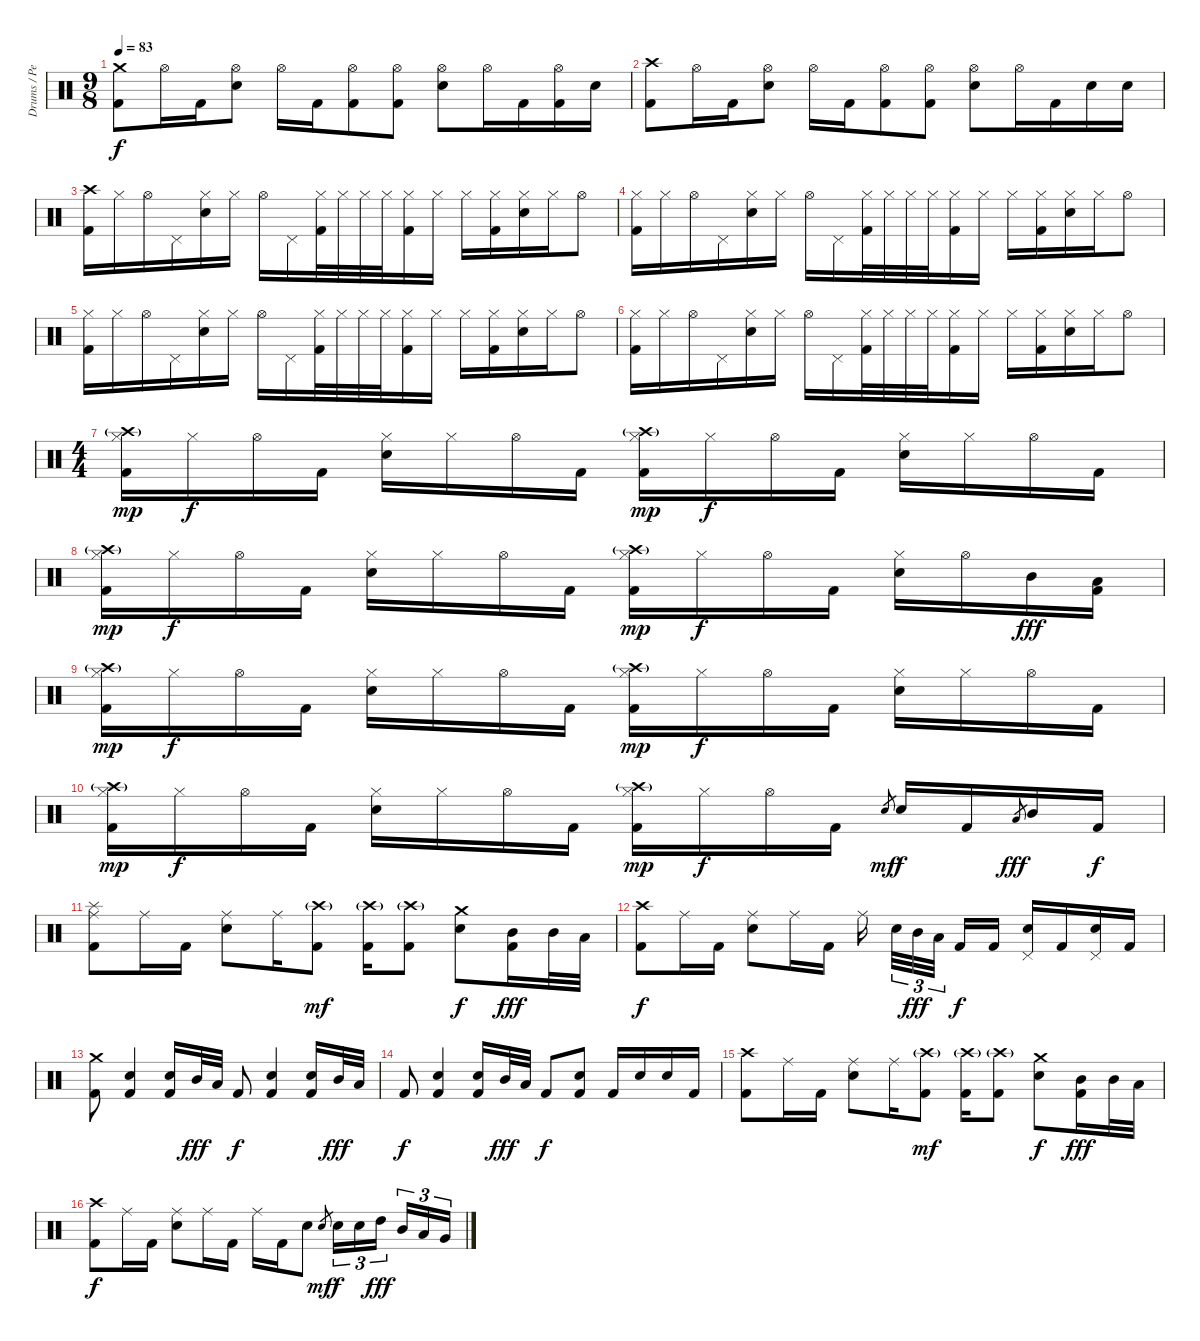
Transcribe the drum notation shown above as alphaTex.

\track ("Drums / Percussion" "Drums / Pe") {instrument percussion}
\staff {score}
\articulation defaults
\ts (9 8)
\tempo 83
\clef neutral
\ks c
("Crash medium (hit)" "Kick (hit) 2").8{dy f} "Hi-Hat (open)".16 "Kick (hit) 2".16 ("Hi-Hat (open)" "Snare (hit) 2").8 "Hi-Hat (open)".16 "Kick (hit) 2".16 ("Hi-Hat (open)" "Kick (hit) 2").8 ("Hi-Hat (open)" "Kick (hit) 2").8 ("Hi-Hat (open)" "Snare (hit) 2").8 "Hi-Hat (open)".16 "Kick (hit) 2".16 ("Hi-Hat (open)" "Kick (hit) 2").16 "Snare (hit) 2".16 |
("Crash high (hit)" "Kick (hit) 2").8 "Hi-Hat (open)".16 "Kick (hit) 2".16 ("Hi-Hat (open)" "Snare (hit) 2").8 "Hi-Hat (open)".16 "Kick (hit) 2".16 ("Hi-Hat (open)" "Kick (hit) 2").8 ("Hi-Hat (open)" "Kick (hit) 2").8 ("Hi-Hat (open)" "Snare (hit) 2").8 "Hi-Hat (open)".16 "Kick (hit) 2".16 "Snare (hit) 2".16 "Snare (hit) 2".16 |
\section ("" "")
("Crash high (hit)" "Kick (hit) 2").16 "Hi-Hat (closed)".16 "Hi-Hat (open)".16 "Pedal Hi-Hat (hit)".16 ("Hi-Hat (closed)" "Snare (hit) 2").16 "Hi-Hat (closed)".16 "Hi-Hat (open)".16 "Pedal Hi-Hat (hit)".16 ("Hi-Hat (closed)" "Kick (hit) 2").32 "Hi-Hat (closed)".32 "Hi-Hat (closed)".32 "Hi-Hat (closed)".32 ("Hi-Hat (closed)" "Kick (hit) 2").16 "Hi-Hat (closed)".16 "Hi-Hat (closed)".16 ("Hi-Hat (closed)" "Kick (hit) 2").16 ("Hi-Hat (closed)" "Snare (hit) 2").16 "Hi-Hat (closed)".16 "Hi-Hat (open)".8 |
("Hi-Hat (closed)" "Kick (hit) 2").16 "Hi-Hat (closed)".16 "Hi-Hat (open)".16 "Pedal Hi-Hat (hit)".16 ("Hi-Hat (closed)" "Snare (hit) 2").16 "Hi-Hat (closed)".16 "Hi-Hat (open)".16 "Pedal Hi-Hat (hit)".16 ("Hi-Hat (closed)" "Kick (hit) 2").32 "Hi-Hat (closed)".32 "Hi-Hat (closed)".32 "Hi-Hat (closed)".32 ("Hi-Hat (closed)" "Kick (hit) 2").16 "Hi-Hat (closed)".16 "Hi-Hat (closed)".16 ("Hi-Hat (closed)" "Kick (hit) 2").16 ("Hi-Hat (closed)" "Snare (hit) 2").16 "Hi-Hat (closed)".16 "Hi-Hat (open)".8 |
("Hi-Hat (closed)" "Kick (hit) 2").16 "Hi-Hat (closed)".16 "Hi-Hat (open)".16 "Pedal Hi-Hat (hit)".16 ("Hi-Hat (closed)" "Snare (hit) 2").16 "Hi-Hat (closed)".16 "Hi-Hat (open)".16 "Pedal Hi-Hat (hit)".16 ("Hi-Hat (closed)" "Kick (hit) 2").32 "Hi-Hat (closed)".32 "Hi-Hat (closed)".32 "Hi-Hat (closed)".32 ("Hi-Hat (closed)" "Kick (hit) 2").16 "Hi-Hat (closed)".16 "Hi-Hat (closed)".16 ("Hi-Hat (closed)" "Kick (hit) 2").16 ("Hi-Hat (closed)" "Snare (hit) 2").16 "Hi-Hat (closed)".16 "Hi-Hat (open)".8 |
("Hi-Hat (closed)" "Kick (hit) 2").16 "Hi-Hat (closed)".16 "Hi-Hat (open)".16 "Pedal Hi-Hat (hit)".16 ("Hi-Hat (closed)" "Snare (hit) 2").16 "Hi-Hat (closed)".16 "Hi-Hat (open)".16 "Pedal Hi-Hat (hit)".16 ("Hi-Hat (closed)" "Kick (hit) 2").32 "Hi-Hat (closed)".32 "Hi-Hat (closed)".32 "Hi-Hat (closed)".32 ("Hi-Hat (closed)" "Kick (hit) 2").16 "Hi-Hat (closed)".16 "Hi-Hat (closed)".16 ("Hi-Hat (closed)" "Kick (hit) 2").16 ("Hi-Hat (closed)" "Snare (hit) 2").16 "Hi-Hat (closed)".16 "Hi-Hat (open)".8 |
\ts (4 4)
\section ("" "")
("Crash high (hit)"{g} "Hi-Hat (closed)" "Kick (hit) 2").16{dy mp} "Hi-Hat (closed)".16{dy f} "Hi-Hat (open)".16 "Kick (hit) 2".16 ("Hi-Hat (closed)" "Snare (hit) 2").16 "Hi-Hat (closed)".16 "Hi-Hat (open)".16 "Kick (hit) 2".16 ("Crash high (hit)"{g} "Hi-Hat (closed)" "Kick (hit) 2").16{dy mp} "Hi-Hat (closed)".16{dy f} "Hi-Hat (open)".16 "Kick (hit) 2".16 ("Hi-Hat (closed)" "Snare (hit) 2").16 "Hi-Hat (closed)".16 "Hi-Hat (open)".16 "Kick (hit) 2".16 |
("Crash high (hit)"{g} "Hi-Hat (closed)" "Kick (hit) 2").16{dy mp} "Hi-Hat (closed)".16{dy f} "Hi-Hat (open)".16 "Kick (hit) 2".16 ("Hi-Hat (closed)" "Snare (hit) 2").16 "Hi-Hat (closed)".16 "Hi-Hat (open)".16 "Kick (hit) 2".16 ("Crash high (hit)"{g} "Hi-Hat (closed)" "Kick (hit) 2").16{dy mp} "Hi-Hat (closed)".16{dy f} "Hi-Hat (open)".16 "Kick (hit) 2".16 ("Hi-Hat (closed)" "Snare (hit) 2").16 "Hi-Hat (open)".16 "Mid Tom (hit)".16{dy fff} ("Low Tom (hit)" "Kick (hit) 2").16 |
("Crash high (hit)"{g} "Hi-Hat (closed)" "Kick (hit) 2").16{dy mp} "Hi-Hat (closed)".16{dy f} "Hi-Hat (open)".16 "Kick (hit) 2".16 ("Hi-Hat (closed)" "Snare (hit) 2").16 "Hi-Hat (closed)".16 "Hi-Hat (open)".16 "Kick (hit) 2".16 ("Crash high (hit)"{g} "Hi-Hat (closed)" "Kick (hit) 2").16{dy mp} "Hi-Hat (closed)".16{dy f} "Hi-Hat (open)".16 "Kick (hit) 2".16 ("Hi-Hat (closed)" "Snare (hit) 2").16 "Hi-Hat (closed)".16 "Hi-Hat (open)".16 "Kick (hit) 2".16 |
("Crash high (hit)"{g} "Hi-Hat (closed)" "Kick (hit) 2").16{dy mp} "Hi-Hat (closed)".16{dy f} "Hi-Hat (open)".16 "Kick (hit) 2".16 ("Hi-Hat (closed)" "Snare (hit) 2").16 "Hi-Hat (closed)".16 "Hi-Hat (open)".16 "Kick (hit) 2".16 ("Crash high (hit)"{g} "Hi-Hat (closed)" "Kick (hit) 2").16{dy mp} "Hi-Hat (closed)".16{dy f} "Hi-Hat (open)".16 "Kick (hit) 2".16 "Snare (hit) 2".8{gr dy mf} "Snare (hit) 2".16{dy f} "Kick (hit) 2".16 "Low Tom (hit)".8{gr dy fff} "Mid Tom (hit)".16 "Kick (hit) 2".16{dy f} |
("Splash (hit)" "Ride (middle)" "Kick (hit) 2").8 "Ride (middle)".16 "Kick (hit) 2".16 ("Ride (middle)" "Snare (hit) 2").8 "Ride (middle)".16 ("Crash high (hit)"{g} "Kick (hit) 2").8{dy mf} ("Crash high (hit)"{g} "Kick (hit) 2").16 ("Crash high (hit)"{g} "Kick (hit) 2").8 ("Crash medium (hit)" "Snare (hit) 2").8{dy f} ("Mid Tom (hit)" "Kick (hit) 2").16{dy fff} "Mid Tom (hit)".32 "Low Tom (hit)".32 |
("Crash high (hit)" "Kick (hit) 2").8{dy f} "Ride (middle)".16 "Kick (hit) 2".16 ("Ride (middle)" "Snare (hit) 2").8 "Ride (middle)".16 "Kick (hit) 2".16 "Ride (middle)".16 "Snare (hit) 2".32{tu (3 2)} "Mid Tom (hit)".32{tu (3 2) dy fff} "Low Tom (hit)".32{tu (3 2)} "Kick (hit) 2".16{dy f} "Kick (hit) 2".16 ("Pedal Hi-Hat (hit)" "Snare (hit) 2").16 "Kick (hit) 2".16 ("Pedal Hi-Hat (hit)" "Snare (hit) 2").16 "Kick (hit) 2".16 |
("Crash medium (hit)" "Kick (hit) 2").8 ("Snare (hit) 2" "Kick (hit) 2").4 ("Snare (hit) 2" "Kick (hit) 2").16 "Mid Tom (hit)".32{dy fff} "Low Tom (hit)".32 "Kick (hit) 2".8{dy f} ("Snare (hit) 2" "Kick (hit) 2").4 ("Snare (hit) 2" "Kick (hit) 2").16 "Mid Tom (hit)".32{dy fff} "Low Tom (hit)".32 |
"Kick (hit) 2".8{dy f} ("Snare (hit) 2" "Kick (hit) 2").4 ("Snare (hit) 2" "Kick (hit) 2").16 "Mid Tom (hit)".32{dy fff} "Low Tom (hit)".32 "Kick (hit) 2".8{dy f} ("Snare (hit) 2" "Kick (hit) 2").8 "Kick (hit) 2".16 "Snare (hit) 2".16 "Snare (hit) 2".16 "Kick (hit) 2".16 |
("Crash high (hit)" "Kick (hit) 2").8 "Ride (middle)".16 "Kick (hit) 2".16 ("Ride (middle)" "Snare (hit) 2").8 "Ride (middle)".16 ("Crash high (hit)"{g} "Kick (hit) 2").8{dy mf} ("Crash high (hit)"{g} "Kick (hit) 2").16 ("Crash high (hit)"{g} "Kick (hit) 2").8 ("Crash medium (hit)" "Snare (hit) 2").8{dy f} ("Mid Tom (hit)" "Kick (hit) 2").16{dy fff} "Mid Tom (hit)".32 "Low Tom (hit)".32 |
("Crash high (hit)" "Kick (hit) 2").8{dy f} "Ride (middle)".16 "Kick (hit) 2".16 ("Ride (middle)" "Snare (hit) 2").8 "Ride (middle)".16 "Kick (hit) 2".16 "Ride (middle)".16 "Kick (hit) 2".16 "Snare (hit) 2".8 "Snare (hit) 2".8{gr dy mf} "Snare (hit) 2".16{tu (3 2) dy f} "Snare (hit) 2".16{tu (3 2)} "High Tom (hit)".16{tu (3 2) dy fff} "Mid Tom (hit)".16{tu (3 2)} "Low Tom (hit)".16{tu (3 2)} "Very Low Tom (hit)".16{tu (3 2)}
